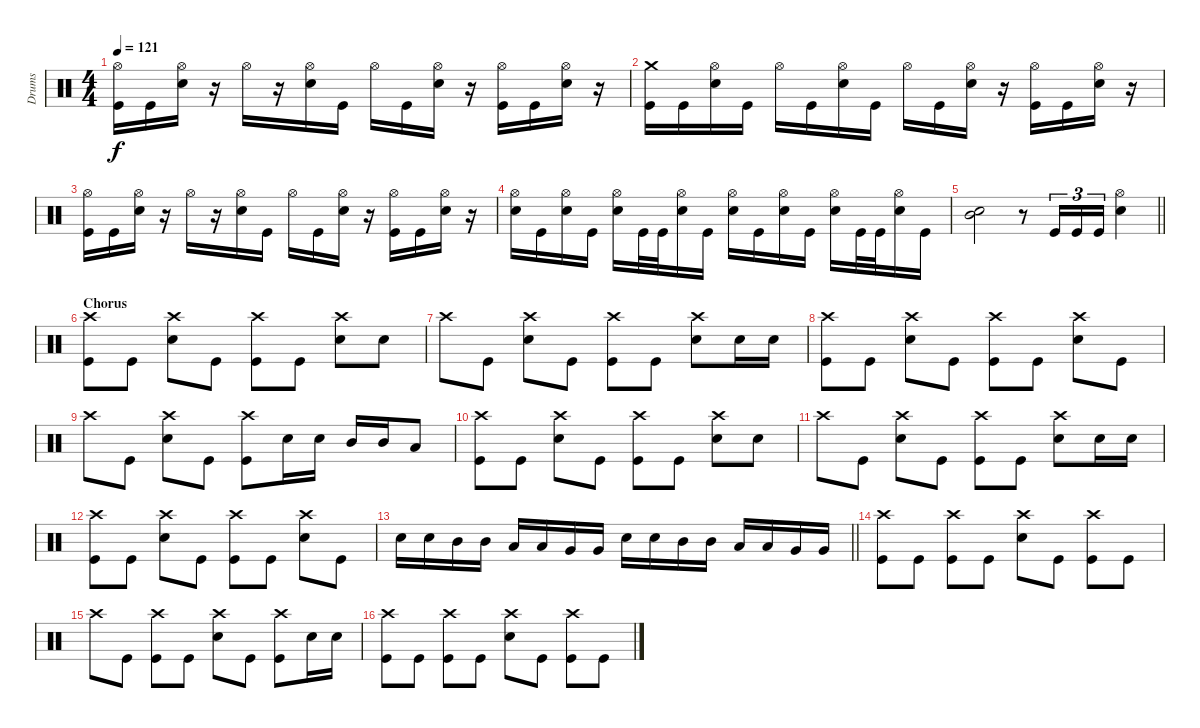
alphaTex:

\track ("Drums" "Drums") {instrument percussion}
\staff {score}
\articulation defaults
\ts (4 4)
\tempo 121
\clef neutral
\ks c
("Hi-Hat (open)" "Kick (hit)").16{dy f} "Kick (hit)".16 ("Hi-Hat (open)" "Electric Snare (hit)").16 r.16 "Hi-Hat (open)".16 r.16 ("Hi-Hat (open)" "Electric Snare (hit)").16 "Kick (hit)".16 "Hi-Hat (open)".16 "Kick (hit)".16 ("Hi-Hat (open)" "Electric Snare (hit)").16 r.16 ("Hi-Hat (open)" "Kick (hit)").16 "Kick (hit)".16 ("Hi-Hat (open)" "Electric Snare (hit)").16 r.16 |
("Crash medium (hit)" "Kick (hit)").16 "Kick (hit)".16 ("Hi-Hat (open)" "Electric Snare (hit)").16 "Kick (hit)".16 "Hi-Hat (open)".16 "Kick (hit)".16 ("Hi-Hat (open)" "Electric Snare (hit)").16 "Kick (hit)".16 "Hi-Hat (open)".16 "Kick (hit)".16 ("Hi-Hat (open)" "Electric Snare (hit)").16 r.16 ("Hi-Hat (open)" "Kick (hit)").16 "Kick (hit)".16 ("Hi-Hat (open)" "Electric Snare (hit)").16 r.16 |
("Hi-Hat (open)" "Kick (hit)").16 "Kick (hit)".16 ("Hi-Hat (open)" "Electric Snare (hit)").16 r.16 "Hi-Hat (open)".16 r.16 ("Hi-Hat (open)" "Electric Snare (hit)").16 "Kick (hit)".16 "Hi-Hat (open)".16 "Kick (hit)".16 ("Hi-Hat (open)" "Electric Snare (hit)").16 r.16 ("Hi-Hat (open)" "Kick (hit)").16 "Kick (hit)".16 ("Hi-Hat (open)" "Electric Snare (hit)").16 r.16 |
("Hi-Hat (open)" "Electric Snare (hit)").16 "Kick (hit)".16 ("Hi-Hat (open)" "Electric Snare (hit)").16 "Kick (hit)".16 ("Hi-Hat (open)" "Electric Snare (hit)").16 "Kick (hit)".32 "Kick (hit)".32 ("Hi-Hat (open)" "Electric Snare (hit)").16 "Kick (hit)".16 ("Hi-Hat (open)" "Electric Snare (hit)").16 "Kick (hit)".16 ("Hi-Hat (open)" "Electric Snare (hit)").16 "Kick (hit)".16 ("Hi-Hat (open)" "Electric Snare (hit)").16 "Kick (hit)".32 "Kick (hit)".32 ("Hi-Hat (open)" "Electric Snare (hit)").16 "Kick (hit)".16 |
\barLineRight lightlight
("Electric Snare (hit)" "Mid Tom (hit)").2 r.8 "Kick (hit)".16{tu (3 2)} "Kick (hit)".16{tu (3 2)} "Kick (hit)".16{tu (3 2)} ("Hi-Hat (open)" "Electric Snare (hit)").4 |
\section ("" "Chorus")
("Crash high (hit)" "Kick (hit)").8 "Kick (hit)".8 ("Crash high (hit)" "Electric Snare (hit)").8 "Kick (hit)".8 ("Crash high (hit)" "Kick (hit)").8 "Kick (hit)".8 ("Crash high (hit)" "Electric Snare (hit)").8 "Electric Snare (hit)".8 |
"Crash high (hit)".8 "Kick (hit)".8 ("Crash high (hit)" "Electric Snare (hit)").8 "Kick (hit)".8 ("Crash high (hit)" "Kick (hit)").8 "Kick (hit)".8 ("Crash high (hit)" "Electric Snare (hit)").8 "Electric Snare (hit)".16 "Electric Snare (hit)".16 |
("Crash high (hit)" "Kick (hit)").8 "Kick (hit)".8 ("Crash high (hit)" "Electric Snare (hit)").8 "Kick (hit)".8 ("Crash high (hit)" "Kick (hit)").8 "Kick (hit)".8 ("Crash high (hit)" "Electric Snare (hit)").8 "Kick (hit)".8 |
"Crash high (hit)".8 "Kick (hit)".8 ("Crash high (hit)" "Electric Snare (hit)").8 "Kick (hit)".8 ("Crash high (hit)" "Kick (hit)").8 "Electric Snare (hit)".16 "Electric Snare (hit)".16 "Mid Tom (hit)".16 "Mid Tom (hit)".16 "Low Tom (hit)".8 |
("Crash high (hit)" "Kick (hit)").8 "Kick (hit)".8 ("Crash high (hit)" "Electric Snare (hit)").8 "Kick (hit)".8 ("Crash high (hit)" "Kick (hit)").8 "Kick (hit)".8 ("Crash high (hit)" "Electric Snare (hit)").8 "Electric Snare (hit)".8 |
"Crash high (hit)".8 "Kick (hit)".8 ("Crash high (hit)" "Electric Snare (hit)").8 "Kick (hit)".8 ("Crash high (hit)" "Kick (hit)").8 "Kick (hit)".8 ("Crash high (hit)" "Electric Snare (hit)").8 "Electric Snare (hit)".16 "Electric Snare (hit)".16 |
("Crash high (hit)" "Kick (hit)").8 "Kick (hit)".8 ("Crash high (hit)" "Electric Snare (hit)").8 "Kick (hit)".8 ("Crash high (hit)" "Kick (hit)").8 "Kick (hit)".8 ("Crash high (hit)" "Electric Snare (hit)").8 "Kick (hit)".8 |
\barLineRight lightlight "Electric Snare (hit)".16 "Electric Snare (hit)".16 "Mid Tom (hit)".16 "Mid Tom (hit)".16 "Low Tom (hit)".16 "Low Tom (hit)".16 "Very Low Tom (hit)".16 "Very Low Tom (hit)".16 "Electric Snare (hit)".16 "Electric Snare (hit)".16 "Mid Tom (hit)".16 "Mid Tom (hit)".16 "Low Tom (hit)".16 "Low Tom (hit)".16 "Very Low Tom (hit)".16 "Very Low Tom (hit)".16
|
("Crash high (hit)" "Kick (hit)").8 "Kick (hit)".8 ("Crash high (hit)" "Kick (hit)").8 "Kick (hit)".8 ("Crash high (hit)" "Electric Snare (hit)").8 "Kick (hit)".8 ("Crash high (hit)" "Kick (hit)").8 "Kick (hit)".8 |
"Crash high (hit)".8 "Kick (hit)".8 ("Crash high (hit)" "Kick (hit)").8 "Kick (hit)".8 ("Crash high (hit)" "Electric Snare (hit)").8 "Kick (hit)".8 ("Crash high (hit)" "Kick (hit)").8 "Electric Snare (hit)".16 "Electric Snare (hit)".16 |
("Crash high (hit)" "Kick (hit)").8 "Kick (hit)".8 ("Crash high (hit)" "Kick (hit)").8 "Kick (hit)".8 ("Crash high (hit)" "Electric Snare (hit)").8 "Kick (hit)".8 ("Crash high (hit)" "Kick (hit)").8 "Kick (hit)".8
